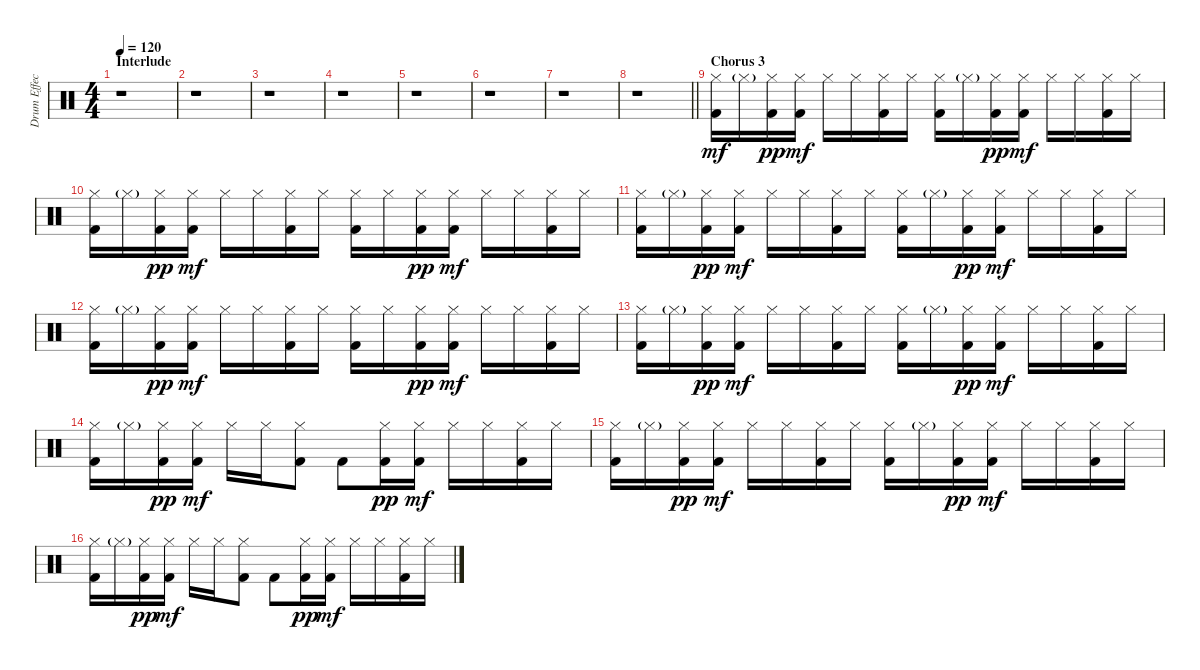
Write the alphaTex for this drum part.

\track ("Drum Effects" "Drum Effec") {instrument percussion}
\staff {score}
\articulation defaults
\ts (4 4)
\section ("" "Interlude")
\tempo 120
\clef neutral
\ks c
r.1{dy mf} |
r.1 |
r.1 |
r.1 |
r.1 |
r.1 |
r.1 |
\barLineRight lightlight
r.1 |
\section ("" "Chorus 3")
("Hi-Hat (closed)" "Kick (hit) 2").16 "Hi-Hat (closed)"{g}.16 ("Hi-Hat (closed)" "Kick (hit) 2").16{dy pp} ("Hi-Hat (closed)" "Kick (hit) 2").16{dy mf} "Hi-Hat (closed)".16 "Hi-Hat (closed)".16 ("Hi-Hat (closed)" "Kick (hit) 2").16 "Hi-Hat (closed)".16 ("Hi-Hat (closed)" "Kick (hit) 2").16 "Hi-Hat (closed)"{g}.16 ("Hi-Hat (closed)" "Kick (hit) 2").16{dy pp} ("Hi-Hat (closed)" "Kick (hit) 2").16{dy mf} "Hi-Hat (closed)".16 "Hi-Hat (closed)".16 ("Hi-Hat (closed)" "Kick (hit) 2").16 "Hi-Hat (closed)".16 |
("Hi-Hat (closed)" "Kick (hit) 2").16 "Hi-Hat (closed)"{g}.16 ("Hi-Hat (closed)" "Kick (hit) 2").16{dy pp} ("Hi-Hat (closed)" "Kick (hit) 2").16{dy mf} "Hi-Hat (closed)".16 "Hi-Hat (closed)".16 ("Hi-Hat (closed)" "Kick (hit) 2").16 "Hi-Hat (closed)".16 ("Hi-Hat (closed)" "Kick (hit) 2").16 "Hi-Hat (closed)".16 ("Hi-Hat (closed)" "Kick (hit) 2").16{dy pp} ("Hi-Hat (closed)" "Kick (hit) 2").16{dy mf} "Hi-Hat (closed)".16 "Hi-Hat (closed)".16 ("Hi-Hat (closed)" "Kick (hit) 2").16 "Hi-Hat (closed)".16 |
("Hi-Hat (closed)" "Kick (hit) 2").16 "Hi-Hat (closed)"{g}.16 ("Hi-Hat (closed)" "Kick (hit) 2").16{dy pp} ("Hi-Hat (closed)" "Kick (hit) 2").16{dy mf} "Hi-Hat (closed)".16 "Hi-Hat (closed)".16 ("Hi-Hat (closed)" "Kick (hit) 2").16 "Hi-Hat (closed)".16 ("Hi-Hat (closed)" "Kick (hit) 2").16 "Hi-Hat (closed)"{g}.16 ("Hi-Hat (closed)" "Kick (hit) 2").16{dy pp} ("Hi-Hat (closed)" "Kick (hit) 2").16{dy mf} "Hi-Hat (closed)".16 "Hi-Hat (closed)".16 ("Hi-Hat (closed)" "Kick (hit) 2").16 "Hi-Hat (closed)".16 |
("Hi-Hat (closed)" "Kick (hit) 2").16 "Hi-Hat (closed)"{g}.16 ("Hi-Hat (closed)" "Kick (hit) 2").16{dy pp} ("Hi-Hat (closed)" "Kick (hit) 2").16{dy mf} "Hi-Hat (closed)".16 "Hi-Hat (closed)".16 ("Hi-Hat (closed)" "Kick (hit) 2").16 "Hi-Hat (closed)".16 ("Hi-Hat (closed)" "Kick (hit) 2").16 "Hi-Hat (closed)".16 ("Hi-Hat (closed)" "Kick (hit) 2").16{dy pp} ("Hi-Hat (closed)" "Kick (hit) 2").16{dy mf} "Hi-Hat (closed)".16 "Hi-Hat (closed)".16 ("Hi-Hat (closed)" "Kick (hit) 2").16 "Hi-Hat (closed)".16 |
("Hi-Hat (closed)" "Kick (hit) 2").16 "Hi-Hat (closed)"{g}.16 ("Hi-Hat (closed)" "Kick (hit) 2").16{dy pp} ("Hi-Hat (closed)" "Kick (hit) 2").16{dy mf} "Hi-Hat (closed)".16 "Hi-Hat (closed)".16 ("Hi-Hat (closed)" "Kick (hit) 2").16 "Hi-Hat (closed)".16 ("Hi-Hat (closed)" "Kick (hit) 2").16 "Hi-Hat (closed)"{g}.16 ("Hi-Hat (closed)" "Kick (hit) 2").16{dy pp} ("Hi-Hat (closed)" "Kick (hit) 2").16{dy mf} "Hi-Hat (closed)".16 "Hi-Hat (closed)".16 ("Hi-Hat (closed)" "Kick (hit) 2").16 "Hi-Hat (closed)".16 |
("Hi-Hat (closed)" "Kick (hit) 2").16 "Hi-Hat (closed)"{g}.16 ("Hi-Hat (closed)" "Kick (hit) 2").16{dy pp} ("Hi-Hat (closed)" "Kick (hit) 2").16{dy mf} "Hi-Hat (closed)".16 "Hi-Hat (closed)".16 ("Hi-Hat (closed)" "Kick (hit) 2").8 "Kick (hit) 2".8 ("Hi-Hat (closed)" "Kick (hit) 2").16{dy pp} ("Hi-Hat (closed)" "Kick (hit) 2").16{dy mf} "Hi-Hat (closed)".16 "Hi-Hat (closed)".16 ("Hi-Hat (closed)" "Kick (hit) 2").16 "Hi-Hat (closed)".16 |
("Hi-Hat (closed)" "Kick (hit) 2").16 "Hi-Hat (closed)"{g}.16 ("Hi-Hat (closed)" "Kick (hit) 2").16{dy pp} ("Hi-Hat (closed)" "Kick (hit) 2").16{dy mf} "Hi-Hat (closed)".16 "Hi-Hat (closed)".16 ("Hi-Hat (closed)" "Kick (hit) 2").16 "Hi-Hat (closed)".16 ("Hi-Hat (closed)" "Kick (hit) 2").16 "Hi-Hat (closed)"{g}.16 ("Hi-Hat (closed)" "Kick (hit) 2").16{dy pp} ("Hi-Hat (closed)" "Kick (hit) 2").16{dy mf} "Hi-Hat (closed)".16 "Hi-Hat (closed)".16 ("Hi-Hat (closed)" "Kick (hit) 2").16 "Hi-Hat (closed)".16 |
("Hi-Hat (closed)" "Kick (hit) 2").16 "Hi-Hat (closed)"{g}.16 ("Hi-Hat (closed)" "Kick (hit) 2").16{dy pp} ("Hi-Hat (closed)" "Kick (hit) 2").16{dy mf} "Hi-Hat (closed)".16 "Hi-Hat (closed)".16 ("Hi-Hat (closed)" "Kick (hit) 2").8 "Kick (hit) 2".8 ("Hi-Hat (closed)" "Kick (hit) 2").16{dy pp} ("Hi-Hat (closed)" "Kick (hit) 2").16{dy mf} "Hi-Hat (closed)".16 "Hi-Hat (closed)".16 ("Hi-Hat (closed)" "Kick (hit) 2").16 "Hi-Hat (closed)".16
